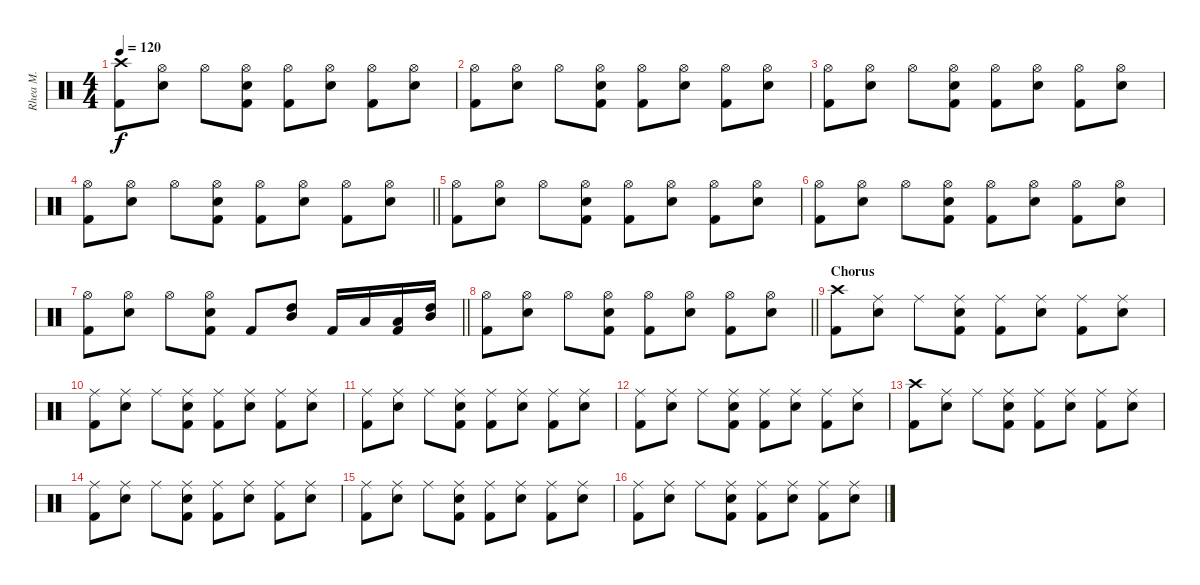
\track ("Rhea M." "Rhea M.") {instrument percussion}
\staff {score}
\articulation defaults
\ts (4 4)
\tempo 120
\clef neutral
\ks c
("Crash high (hit)" "Kick (hit) 2").8{dy f} ("Hi-Hat (open)" "Electric Snare (hit)").8 "Hi-Hat (open)".8 ("Hi-Hat (open)" "Electric Snare (hit)" "Kick (hit) 2").8 ("Hi-Hat (open)" "Kick (hit) 2").8 ("Hi-Hat (open)" "Electric Snare (hit)").8 ("Hi-Hat (open)" "Kick (hit) 2").8 ("Hi-Hat (open)" "Electric Snare (hit)").8 |
("Hi-Hat (open)" "Kick (hit) 2").8 ("Hi-Hat (open)" "Electric Snare (hit)").8 "Hi-Hat (open)".8 ("Hi-Hat (open)" "Electric Snare (hit)" "Kick (hit) 2").8 ("Hi-Hat (open)" "Kick (hit) 2").8 ("Hi-Hat (open)" "Electric Snare (hit)").8 ("Hi-Hat (open)" "Kick (hit) 2").8 ("Hi-Hat (open)" "Electric Snare (hit)").8 |
("Hi-Hat (open)" "Kick (hit) 2").8 ("Hi-Hat (open)" "Electric Snare (hit)").8 "Hi-Hat (open)".8 ("Hi-Hat (open)" "Electric Snare (hit)" "Kick (hit) 2").8 ("Hi-Hat (open)" "Kick (hit) 2").8 ("Hi-Hat (open)" "Electric Snare (hit)").8 ("Hi-Hat (open)" "Kick (hit) 2").8 ("Hi-Hat (open)" "Electric Snare (hit)").8 |
\barLineRight lightlight
("Hi-Hat (open)" "Kick (hit) 2").8 ("Hi-Hat (open)" "Electric Snare (hit)").8 "Hi-Hat (open)".8 ("Hi-Hat (open)" "Electric Snare (hit)" "Kick (hit) 2").8 ("Hi-Hat (open)" "Kick (hit) 2").8 ("Hi-Hat (open)" "Electric Snare (hit)").8 ("Hi-Hat (open)" "Kick (hit) 2").8 ("Hi-Hat (open)" "Electric Snare (hit)").8 |
("Hi-Hat (open)" "Kick (hit) 2").8 ("Hi-Hat (open)" "Electric Snare (hit)").8 "Hi-Hat (open)".8 ("Hi-Hat (open)" "Electric Snare (hit)" "Kick (hit) 2").8 ("Hi-Hat (open)" "Kick (hit) 2").8 ("Hi-Hat (open)" "Electric Snare (hit)").8 ("Hi-Hat (open)" "Kick (hit) 2").8 ("Hi-Hat (open)" "Electric Snare (hit)").8 |
("Hi-Hat (open)" "Kick (hit) 2").8 ("Hi-Hat (open)" "Electric Snare (hit)").8 "Hi-Hat (open)".8 ("Hi-Hat (open)" "Electric Snare (hit)" "Kick (hit) 2").8 ("Hi-Hat (open)" "Kick (hit) 2").8 ("Hi-Hat (open)" "Electric Snare (hit)").8 ("Hi-Hat (open)" "Kick (hit) 2").8 ("Hi-Hat (open)" "Electric Snare (hit)").8 |
\barLineRight lightlight
("Hi-Hat (open)" "Kick (hit) 2").8 ("Hi-Hat (open)" "Electric Snare (hit)").8 "Hi-Hat (open)".8 ("Hi-Hat (open)" "Electric Snare (hit)" "Kick (hit) 2").8 "Kick (hit) 2".8 ("Mid Tom (hit)" "High Tom (hit)").8 "Kick (hit) 2".16 "Low Tom (hit)".16 ("Low Floor Tom (hit)" "Kick (hit) 2").16 ("High Tom (hit)" "Mid Tom (hit)").16 |
\barLineRight lightlight
("Hi-Hat (open)" "Kick (hit) 2").8 ("Hi-Hat (open)" "Electric Snare (hit)").8 "Hi-Hat (open)".8 ("Hi-Hat (open)" "Electric Snare (hit)" "Kick (hit) 2").8 ("Hi-Hat (open)" "Kick (hit) 2").8 ("Hi-Hat (open)" "Electric Snare (hit)").8 ("Hi-Hat (open)" "Kick (hit) 2").8 ("Hi-Hat (open)" "Electric Snare (hit)").8 |
\section ("" "Chorus")
("Crash high (hit)" "Kick (hit) 2").8 ("Ride (middle)" "Electric Snare (hit)").8 "Ride (middle)".8 ("Ride (middle)" "Electric Snare (hit)" "Kick (hit) 2").8 ("Ride (middle)" "Kick (hit) 2").8 ("Ride (middle)" "Electric Snare (hit)").8 ("Ride (middle)" "Kick (hit) 2").8 ("Ride (middle)" "Electric Snare (hit)").8 |
("Ride (middle)" "Kick (hit) 2").8 ("Ride (middle)" "Electric Snare (hit)").8 "Ride (middle)".8 ("Ride (middle)" "Electric Snare (hit)" "Kick (hit) 2").8 ("Ride (middle)" "Kick (hit) 2").8 ("Ride (middle)" "Electric Snare (hit)").8 ("Ride (middle)" "Kick (hit) 2").8 ("Ride (middle)" "Electric Snare (hit)").8 |
("Ride (middle)" "Kick (hit) 2").8 ("Ride (middle)" "Electric Snare (hit)").8 "Ride (middle)".8 ("Ride (middle)" "Electric Snare (hit)" "Kick (hit) 2").8 ("Ride (middle)" "Kick (hit) 2").8 ("Ride (middle)" "Electric Snare (hit)").8 ("Ride (middle)" "Kick (hit) 2").8 ("Ride (middle)" "Electric Snare (hit)").8 |
("Ride (middle)" "Kick (hit) 2").8 ("Ride (middle)" "Electric Snare (hit)").8 "Ride (middle)".8 ("Ride (middle)" "Electric Snare (hit)" "Kick (hit) 2").8 ("Ride (middle)" "Kick (hit) 2").8 ("Ride (middle)" "Electric Snare (hit)").8 ("Ride (middle)" "Kick (hit) 2").8 ("Ride (middle)" "Electric Snare (hit)").8 |
("Crash high (hit)" "Kick (hit) 2").8 ("Ride (middle)" "Electric Snare (hit)").8 "Ride (middle)".8 ("Ride (middle)" "Electric Snare (hit)" "Kick (hit) 2").8 ("Ride (middle)" "Kick (hit) 2").8 ("Ride (middle)" "Electric Snare (hit)").8 ("Ride (middle)" "Kick (hit) 2").8 ("Ride (middle)" "Electric Snare (hit)").8 |
("Ride (middle)" "Kick (hit) 2").8 ("Ride (middle)" "Electric Snare (hit)").8 "Ride (middle)".8 ("Ride (middle)" "Electric Snare (hit)" "Kick (hit) 2").8 ("Ride (middle)" "Kick (hit) 2").8 ("Ride (middle)" "Electric Snare (hit)").8 ("Ride (middle)" "Kick (hit) 2").8 ("Ride (middle)" "Electric Snare (hit)").8 |
("Ride (middle)" "Kick (hit) 2").8 ("Ride (middle)" "Electric Snare (hit)").8 "Ride (middle)".8 ("Ride (middle)" "Electric Snare (hit)" "Kick (hit) 2").8 ("Ride (middle)" "Kick (hit) 2").8 ("Ride (middle)" "Electric Snare (hit)").8 ("Ride (middle)" "Kick (hit) 2").8 ("Ride (middle)" "Electric Snare (hit)").8 |
("Ride (middle)" "Kick (hit) 2").8 ("Ride (middle)" "Electric Snare (hit)").8 "Ride (middle)".8 ("Ride (middle)" "Electric Snare (hit)" "Kick (hit) 2").8 ("Ride (middle)" "Kick (hit) 2").8 ("Ride (middle)" "Electric Snare (hit)").8 ("Ride (middle)" "Kick (hit) 2").8 ("Ride (middle)" "Electric Snare (hit)").8
